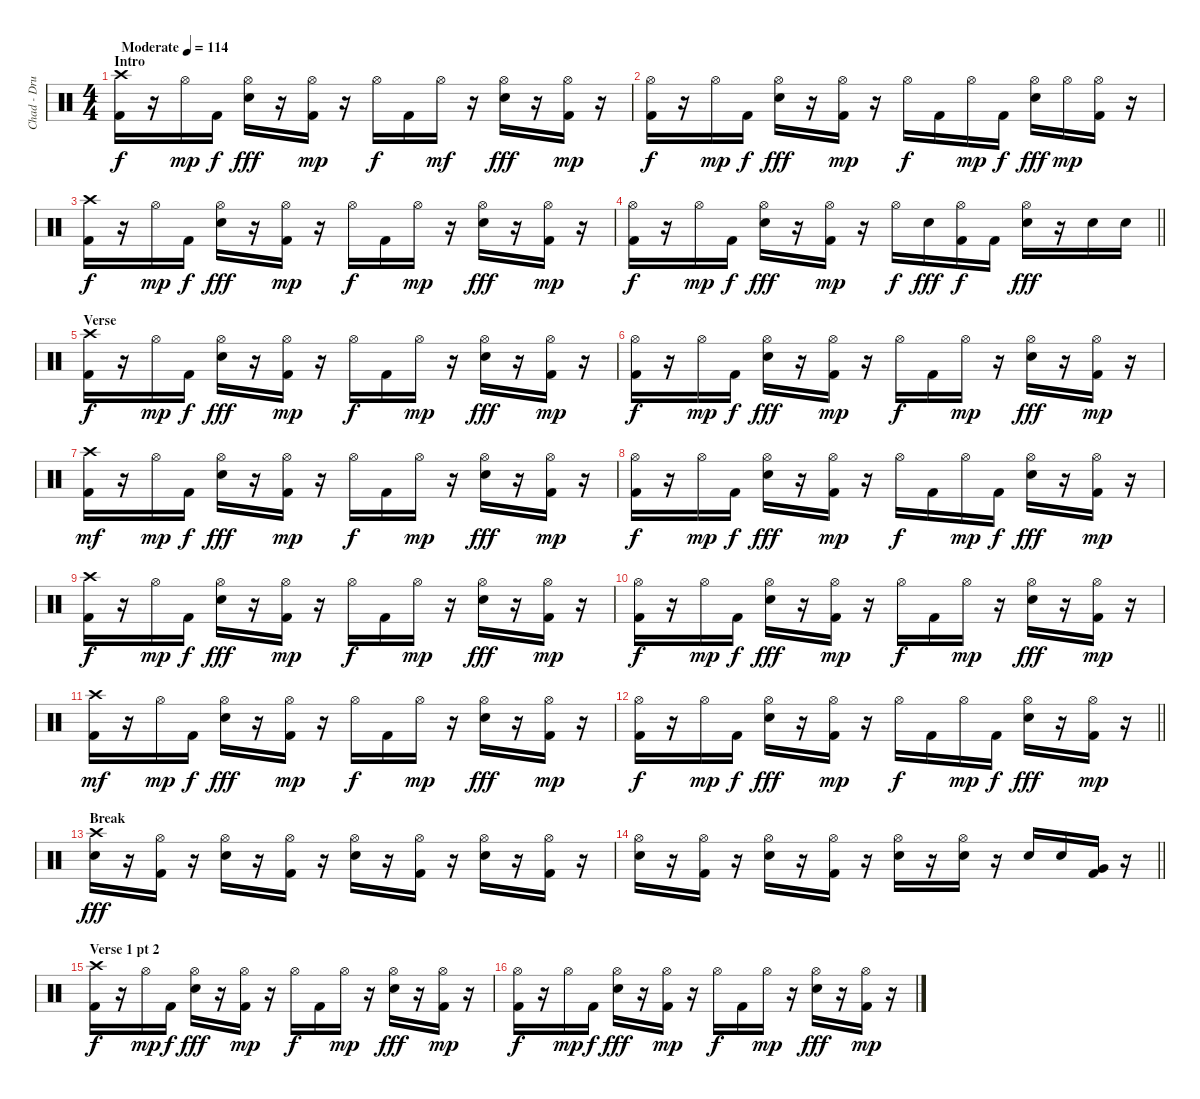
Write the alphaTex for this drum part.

\track ("Chad - Drums" "Chad - Dru") {instrument percussion}
\staff {score}
\articulation defaults
\ts (4 4)
\section ("" "Intro")
\tempo (114 "Moderate")
\clef neutral
\ks c
("Crash high (hit)" "Kick (hit) 2").16{dy f} r.16 "Hi-Hat (open)".16{dy mp} "Kick (hit) 2".16{dy f} ("Hi-Hat (open)" "Electric Snare (hit)").16{dy fff} r.16 ("Hi-Hat (open)" "Kick (hit) 2").16{dy mp} r.16 "Hi-Hat (open)".16{dy f} "Kick (hit) 2".16 "Hi-Hat (open)".16{dy mf} r.16 ("Hi-Hat (open)" "Electric Snare (hit)").16{dy fff} r.16 ("Hi-Hat (open)" "Kick (hit) 2").16{dy mp} r.16 |
("Hi-Hat (open)" "Kick (hit) 2").16{dy f} r.16 "Hi-Hat (open)".16{dy mp} "Kick (hit) 2".16{dy f} ("Hi-Hat (open)" "Electric Snare (hit)").16{dy fff} r.16 ("Hi-Hat (open)" "Kick (hit) 2").16{dy mp} r.16 "Hi-Hat (open)".16{dy f} "Kick (hit) 2".16 "Hi-Hat (open)".16{dy mp} "Kick (hit) 2".16{dy f} ("Hi-Hat (open)" "Electric Snare (hit)").16{dy fff} "Hi-Hat (open)".16{dy mp} ("Hi-Hat (open)" "Kick (hit) 2").16 r.16 |
("Crash high (hit)" "Kick (hit) 2").16{dy f} r.16 "Hi-Hat (open)".16{dy mp} "Kick (hit) 2".16{dy f} ("Hi-Hat (open)" "Electric Snare (hit)").16{dy fff} r.16 ("Hi-Hat (open)" "Kick (hit) 2").16{dy mp} r.16 "Hi-Hat (open)".16{dy f} "Kick (hit) 2".16 "Hi-Hat (open)".16{dy mp} r.16 ("Hi-Hat (open)" "Electric Snare (hit)").16{dy fff} r.16 ("Hi-Hat (open)" "Kick (hit) 2").16{dy mp} r.16 |
\barLineRight lightlight
("Hi-Hat (open)" "Kick (hit) 2").16{dy f} r.16 "Hi-Hat (open)".16{dy mp} "Kick (hit) 2".16{dy f} ("Hi-Hat (open)" "Electric Snare (hit)").16{dy fff} r.16 ("Hi-Hat (open)" "Kick (hit) 2").16{dy mp} r.16 "Hi-Hat (open)".16{dy f} "Electric Snare (hit)".16{dy fff} ("Hi-Hat (open)" "Kick (hit) 2").16{dy f} "Kick (hit) 2".16 ("Hi-Hat (open)" "Electric Snare (hit)").16{dy fff} r.16 "Electric Snare (hit)".16 "Electric Snare (hit)".16 |
\section ("" "Verse")
("Crash high (hit)" "Kick (hit) 2").16{dy f} r.16 "Hi-Hat (open)".16{dy mp} "Kick (hit) 2".16{dy f} ("Hi-Hat (open)" "Electric Snare (hit)").16{dy fff} r.16 ("Hi-Hat (open)" "Kick (hit) 2").16{dy mp} r.16 "Hi-Hat (open)".16{dy f} "Kick (hit) 2".16 "Hi-Hat (open)".16{dy mp} r.16 ("Hi-Hat (open)" "Electric Snare (hit)").16{dy fff} r.16 ("Hi-Hat (open)" "Kick (hit) 2").16{dy mp} r.16 |
("Hi-Hat (open)" "Kick (hit) 2").16{dy f} r.16 "Hi-Hat (open)".16{dy mp} "Kick (hit) 2".16{dy f} ("Hi-Hat (open)" "Electric Snare (hit)").16{dy fff} r.16 ("Hi-Hat (open)" "Kick (hit) 2").16{dy mp} r.16 "Hi-Hat (open)".16{dy f} "Kick (hit) 2".16 "Hi-Hat (open)".16{dy mp} r.16 ("Hi-Hat (open)" "Electric Snare (hit)").16{dy fff} r.16 ("Hi-Hat (open)" "Kick (hit) 2").16{dy mp} r.16 |
("Crash high (hit)" "Kick (hit) 2").16{dy mf} r.16 "Hi-Hat (open)".16{dy mp} "Kick (hit) 2".16{dy f} ("Hi-Hat (open)" "Electric Snare (hit)").16{dy fff} r.16 ("Hi-Hat (open)" "Kick (hit) 2").16{dy mp} r.16 "Hi-Hat (open)".16{dy f} "Kick (hit) 2".16 "Hi-Hat (open)".16{dy mp} r.16 ("Hi-Hat (open)" "Electric Snare (hit)").16{dy fff} r.16 ("Hi-Hat (open)" "Kick (hit) 2").16{dy mp} r.16 |
("Hi-Hat (open)" "Kick (hit) 2").16{dy f} r.16 "Hi-Hat (open)".16{dy mp} "Kick (hit) 2".16{dy f} ("Hi-Hat (open)" "Electric Snare (hit)").16{dy fff} r.16 ("Hi-Hat (open)" "Kick (hit) 2").16{dy mp} r.16 "Hi-Hat (open)".16{dy f} "Kick (hit) 2".16 "Hi-Hat (open)".16{dy mp} "Kick (hit) 2".16{dy f} ("Hi-Hat (open)" "Electric Snare (hit)").16{dy fff} r.16 ("Hi-Hat (open)" "Kick (hit) 2").16{dy mp} r.16 |
("Crash high (hit)" "Kick (hit) 2").16{dy f} r.16 "Hi-Hat (open)".16{dy mp} "Kick (hit) 2".16{dy f} ("Hi-Hat (open)" "Electric Snare (hit)").16{dy fff} r.16 ("Hi-Hat (open)" "Kick (hit) 2").16{dy mp} r.16 "Hi-Hat (open)".16{dy f} "Kick (hit) 2".16 "Hi-Hat (open)".16{dy mp} r.16 ("Hi-Hat (open)" "Electric Snare (hit)").16{dy fff} r.16 ("Hi-Hat (open)" "Kick (hit) 2").16{dy mp} r.16 |
("Hi-Hat (open)" "Kick (hit) 2").16{dy f} r.16 "Hi-Hat (open)".16{dy mp} "Kick (hit) 2".16{dy f} ("Hi-Hat (open)" "Electric Snare (hit)").16{dy fff} r.16 ("Hi-Hat (open)" "Kick (hit) 2").16{dy mp} r.16 "Hi-Hat (open)".16{dy f} "Kick (hit) 2".16 "Hi-Hat (open)".16{dy mp} r.16 ("Hi-Hat (open)" "Electric Snare (hit)").16{dy fff} r.16 ("Hi-Hat (open)" "Kick (hit) 2").16{dy mp} r.16 |
("Crash high (hit)" "Kick (hit) 2").16{dy mf} r.16 "Hi-Hat (open)".16{dy mp} "Kick (hit) 2".16{dy f} ("Hi-Hat (open)" "Electric Snare (hit)").16{dy fff} r.16 ("Hi-Hat (open)" "Kick (hit) 2").16{dy mp} r.16 "Hi-Hat (open)".16{dy f} "Kick (hit) 2".16 "Hi-Hat (open)".16{dy mp} r.16 ("Hi-Hat (open)" "Electric Snare (hit)").16{dy fff} r.16 ("Hi-Hat (open)" "Kick (hit) 2").16{dy mp} r.16 |
\barLineRight lightlight
("Hi-Hat (open)" "Kick (hit) 2").16{dy f} r.16 "Hi-Hat (open)".16{dy mp} "Kick (hit) 2".16{dy f} ("Hi-Hat (open)" "Electric Snare (hit)").16{dy fff} r.16 ("Hi-Hat (open)" "Kick (hit) 2").16{dy mp} r.16 "Hi-Hat (open)".16{dy f} "Kick (hit) 2".16 "Hi-Hat (open)".16{dy mp} "Kick (hit) 2".16{dy f} ("Hi-Hat (open)" "Electric Snare (hit)").16{dy fff} r.16 ("Hi-Hat (open)" "Kick (hit) 2").16{dy mp} r.16 |
\section ("" "Break")
("Crash high (hit)" "Electric Snare (hit)").16{dy fff} r.16 ("Hi-Hat (open)" "Kick (hit) 2").16 r.16 ("Hi-Hat (open)" "Electric Snare (hit)").16 r.16 ("Hi-Hat (open)" "Kick (hit) 2").16 r.16 ("Hi-Hat (open)" "Electric Snare (hit)").16 r.16 ("Hi-Hat (open)" "Kick (hit) 2").16 r.16 ("Hi-Hat (open)" "Electric Snare (hit)").16 r.16 ("Hi-Hat (open)" "Kick (hit) 2").16 r.16 |
\barLineRight lightlight
("Hi-Hat (open)" "Electric Snare (hit)").16 r.16 ("Hi-Hat (open)" "Kick (hit) 2").16 r.16 ("Hi-Hat (open)" "Electric Snare (hit)").16 r.16 ("Hi-Hat (open)" "Kick (hit) 2").16 r.16 ("Hi-Hat (open)" "Electric Snare (hit)").16 r.16 ("Hi-Hat (open)" "Electric Snare (hit)").16 r.16 "Electric Snare (hit)".16 "Electric Snare (hit)".16 ("Very Low Tom (hit)" "Kick (hit) 2").16 r.16 |
\section ("" "Verse 1 pt 2")
("Crash high (hit)" "Kick (hit) 2").16{dy f} r.16 "Hi-Hat (open)".16{dy mp} "Kick (hit) 2".16{dy f} ("Hi-Hat (open)" "Electric Snare (hit)").16{dy fff} r.16 ("Hi-Hat (open)" "Kick (hit) 2").16{dy mp} r.16 "Hi-Hat (open)".16{dy f} "Kick (hit) 2".16 "Hi-Hat (open)".16{dy mp} r.16 ("Hi-Hat (open)" "Electric Snare (hit)").16{dy fff} r.16 ("Hi-Hat (open)" "Kick (hit) 2").16{dy mp} r.16 |
("Hi-Hat (open)" "Kick (hit) 2").16{dy f} r.16 "Hi-Hat (open)".16{dy mp} "Kick (hit) 2".16{dy f} ("Hi-Hat (open)" "Electric Snare (hit)").16{dy fff} r.16 ("Hi-Hat (open)" "Kick (hit) 2").16{dy mp} r.16 "Hi-Hat (open)".16{dy f} "Kick (hit) 2".16 "Hi-Hat (open)".16{dy mp} r.16 ("Hi-Hat (open)" "Electric Snare (hit)").16{dy fff} r.16 ("Hi-Hat (open)" "Kick (hit) 2").16{dy mp} r.16
